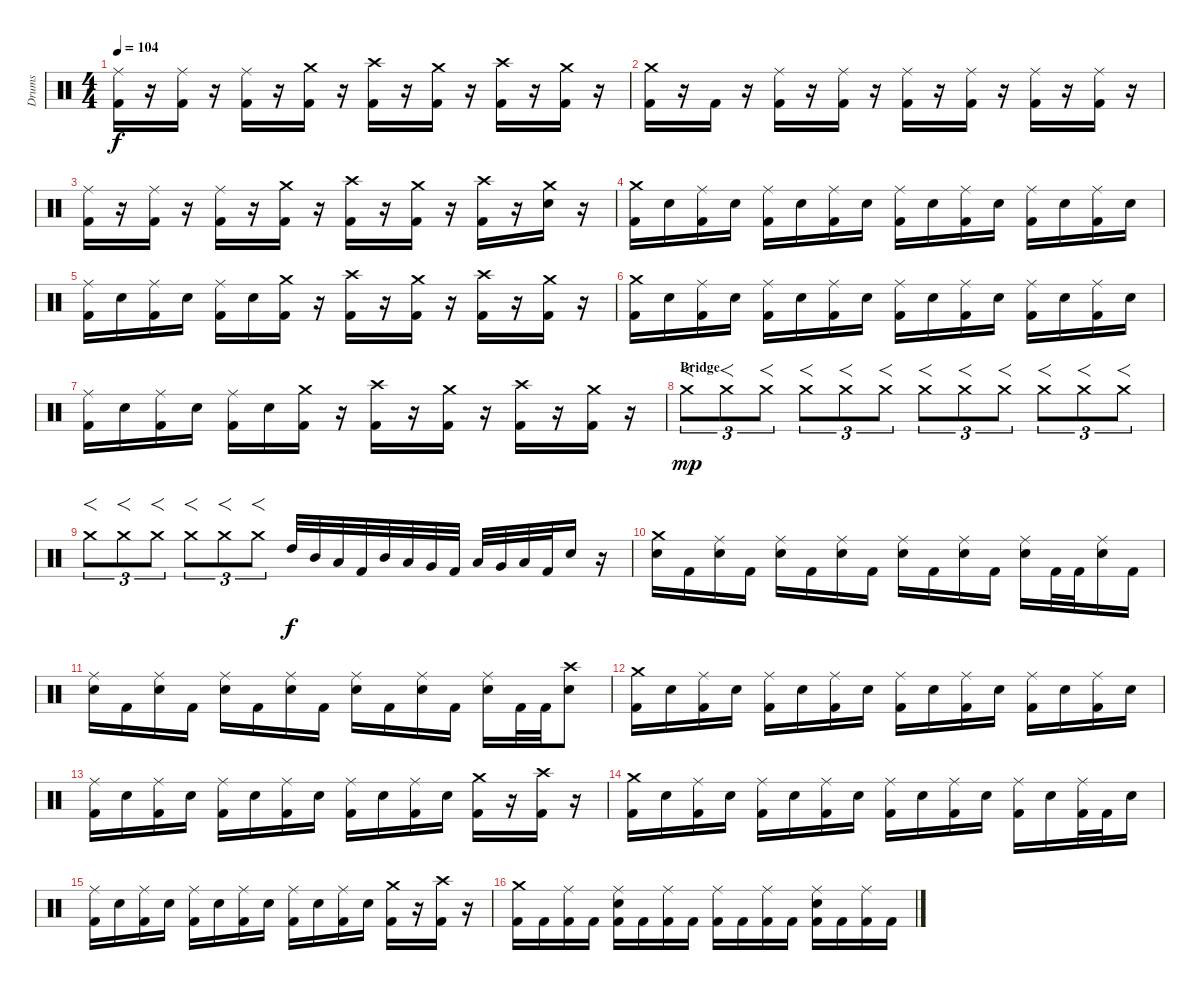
\track ("Drums" "Drums") {instrument percussion}
\staff {score}
\articulation defaults
\ts (4 4)
\tempo 104
\clef neutral
\ks c
("Ride (middle)" "Kick (hit) 2").16{dy f} r.16 ("Ride (middle)" "Kick (hit) 2").16 r.16 ("Ride (middle)" "Kick (hit) 2").16 r.16 ("Crash medium (hit)" "Kick (hit) 2").16 r.16 ("Crash high (hit)" "Kick (hit) 2").16 r.16 ("Crash medium (hit)" "Kick (hit) 2").16 r.16 ("Crash high (hit)" "Kick (hit) 2").16 r.16 ("Crash medium (hit)" "Kick (hit) 2").16 r.16 |
("Crash medium (hit)" "Kick (hit) 2").16 r.16 "Kick (hit) 2".16 r.16 ("Ride (middle)" "Kick (hit) 2").16 r.16 ("Ride (middle)" "Kick (hit) 2").16 r.16 ("Ride (middle)" "Kick (hit) 2").16 r.16 ("Ride (middle)" "Kick (hit) 2").16 r.16 ("Ride (middle)" "Kick (hit) 2").16 r.16 ("Ride (middle)" "Kick (hit) 2").16 r.16 |
("Ride (middle)" "Kick (hit) 2").16 r.16 ("Ride (middle)" "Kick (hit) 2").16 r.16 ("Ride (middle)" "Kick (hit) 2").16 r.16 ("Crash medium (hit)" "Kick (hit) 2").16 r.16 ("Crash high (hit)" "Kick (hit) 2").16 r.16 ("Crash medium (hit)" "Kick (hit) 2").16 r.16 ("Crash high (hit)" "Kick (hit) 2").16 r.16 ("Crash medium (hit)" "Electric Snare (hit)").16 r.16 |
("Crash medium (hit)" "Kick (hit) 2").16 "Electric Snare (hit)".16 ("Ride (middle)" "Kick (hit) 2").16 "Electric Snare (hit)".16 ("Ride (middle)" "Kick (hit) 2").16 "Electric Snare (hit)".16 ("Ride (middle)" "Kick (hit) 2").16 "Electric Snare (hit)".16 ("Ride (middle)" "Kick (hit) 2").16 "Electric Snare (hit)".16 ("Ride (middle)" "Kick (hit) 2").16 "Electric Snare (hit)".16 ("Ride (middle)" "Kick (hit) 2").16 "Electric Snare (hit)".16 ("Ride (middle)" "Kick (hit) 2").16 "Electric Snare (hit)".16 |
("Ride (middle)" "Kick (hit) 2").16 "Electric Snare (hit)".16 ("Ride (middle)" "Kick (hit) 2").16 "Electric Snare (hit)".16 ("Ride (middle)" "Kick (hit) 2").16 "Electric Snare (hit)".16 ("Crash medium (hit)" "Kick (hit) 2").16 r.16 ("Crash high (hit)" "Kick (hit) 2").16 r.16 ("Crash medium (hit)" "Kick (hit) 2").16 r.16 ("Crash high (hit)" "Kick (hit) 2").16 r.16 ("Crash medium (hit)" "Kick (hit) 2").16 r.16 |
("Crash medium (hit)" "Kick (hit) 2").16 "Electric Snare (hit)".16 ("Ride (middle)" "Kick (hit) 2").16 "Electric Snare (hit)".16 ("Ride (middle)" "Kick (hit) 2").16 "Electric Snare (hit)".16 ("Ride (middle)" "Kick (hit) 2").16 "Electric Snare (hit)".16 ("Ride (middle)" "Kick (hit) 2").16 "Electric Snare (hit)".16 ("Ride (middle)" "Kick (hit) 2").16 "Electric Snare (hit)".16 ("Ride (middle)" "Kick (hit) 2").16 "Electric Snare (hit)".16 ("Ride (middle)" "Kick (hit) 2").16 "Electric Snare (hit)".16 |
("Ride (middle)" "Kick (hit) 2").16 "Electric Snare (hit)".16 ("Ride (middle)" "Kick (hit) 2").16 "Electric Snare (hit)".16 ("Ride (middle)" "Kick (hit) 2").16 "Electric Snare (hit)".16 ("Crash medium (hit)" "Kick (hit) 2").16 r.16 ("Crash high (hit)" "Kick (hit) 2").16 r.16 ("Crash medium (hit)" "Kick (hit) 2").16 r.16 ("Crash high (hit)" "Kick (hit) 2").16 r.16 ("Crash medium (hit)" "Kick (hit) 2").16 r.16 |
\section ("" "Bridge")
"Crash medium (hit)".8{f tu (3 2) dy mp} "Crash medium (hit)".8{f tu (3 2)} "Crash medium (hit)".8{f tu (3 2)} "Crash medium (hit)".8{f tu (3 2)} "Crash medium (hit)".8{f tu (3 2)} "Crash medium (hit)".8{f tu (3 2)} "Crash medium (hit)".8{f tu (3 2)} "Crash medium (hit)".8{f tu (3 2)} "Crash medium (hit)".8{f tu (3 2)} "Crash medium (hit)".8{f tu (3 2)} "Crash medium (hit)".8{f tu (3 2)} "Crash medium (hit)".8{f tu (3 2)} |
"Crash medium (hit)".8{f tu (3 2)} "Crash medium (hit)".8{f tu (3 2)} "Crash medium (hit)".8{f tu (3 2)} "Crash medium (hit)".8{f tu (3 2)} "Crash medium (hit)".8{f tu (3 2)} "Crash medium (hit)".8{f tu (3 2)} "High Tom (hit)".32{dy f} "Mid Tom (hit)".32 "Low Tom (hit)".32 "Kick (hit) 2".32 "Mid Tom (hit)".32 "Low Tom (hit)".32 "Very Low Tom (hit)".32 "Kick (hit) 2".32 "Low Tom (hit)".32 "Very Low Tom (hit)".32 "Low Floor Tom (hit)".32 "Kick (hit) 2".32 "Electric Snare (hit)".16 r.16 |
("Crash medium (hit)" "Electric Snare (hit)").16 "Kick (hit) 2".16 ("Ride (middle)" "Electric Snare (hit)").16 "Kick (hit) 2".16 ("Ride (middle)" "Electric Snare (hit)").16 "Kick (hit) 2".16 ("Ride (middle)" "Electric Snare (hit)").16 "Kick (hit) 2".16 ("Ride (middle)" "Electric Snare (hit)").16 "Kick (hit) 2".16 ("Ride (middle)" "Electric Snare (hit)").16 "Kick (hit) 2".16 ("Ride (middle)" "Electric Snare (hit)").16 "Kick (hit) 2".32 "Kick (hit) 2".32 ("Ride (middle)" "Electric Snare (hit)").16 "Kick (hit) 2".16 |
("Ride (middle)" "Electric Snare (hit)").16 "Kick (hit) 2".16 ("Ride (middle)" "Electric Snare (hit)").16 "Kick (hit) 2".16 ("Ride (middle)" "Electric Snare (hit)").16 "Kick (hit) 2".16 ("Ride (middle)" "Electric Snare (hit)").16 "Kick (hit) 2".16 ("Ride (middle)" "Electric Snare (hit)").16 "Kick (hit) 2".16 ("Ride (middle)" "Electric Snare (hit)").16 "Kick (hit) 2".16 ("Ride (middle)" "Electric Snare (hit)").16 "Kick (hit) 2".32 "Kick (hit) 2".32 ("Crash high (hit)" "Electric Snare (hit)").8 |
("Crash medium (hit)" "Kick (hit) 2").16 "Electric Snare (hit)".16 ("Ride (middle)" "Kick (hit) 2").16 "Electric Snare (hit)".16 ("Ride (middle)" "Kick (hit) 2").16 "Electric Snare (hit)".16 ("Ride (middle)" "Kick (hit) 2").16 "Electric Snare (hit)".16 ("Ride (middle)" "Kick (hit) 2").16 "Electric Snare (hit)".16 ("Ride (middle)" "Kick (hit) 2").16 "Electric Snare (hit)".16 ("Ride (middle)" "Kick (hit) 2").16 "Electric Snare (hit)".16 ("Ride (middle)" "Kick (hit) 2").16 "Electric Snare (hit)".16 |
("Ride (middle)" "Kick (hit) 2").16 "Electric Snare (hit)".16 ("Ride (middle)" "Kick (hit) 2").16 "Electric Snare (hit)".16 ("Ride (middle)" "Kick (hit) 2").16 "Electric Snare (hit)".16 ("Ride (middle)" "Kick (hit) 2").16 "Electric Snare (hit)".16 ("Ride (middle)" "Kick (hit) 2").16 "Electric Snare (hit)".16 ("Ride (middle)" "Kick (hit) 2").16 "Electric Snare (hit)".16 ("Crash medium (hit)" "Kick (hit) 2").16 r.16 ("Crash high (hit)" "Kick (hit) 2").16 r.16 |
("Crash medium (hit)" "Kick (hit) 2").16 "Electric Snare (hit)".16 ("Ride (middle)" "Kick (hit) 2").16 "Electric Snare (hit)".16 ("Ride (middle)" "Kick (hit) 2").16 "Electric Snare (hit)".16 ("Ride (middle)" "Kick (hit) 2").16 "Electric Snare (hit)".16 ("Ride (middle)" "Kick (hit) 2").16 "Electric Snare (hit)".16 ("Ride (middle)" "Kick (hit) 2").16 "Electric Snare (hit)".16 ("Ride (middle)" "Kick (hit) 2").16 "Electric Snare (hit)".16 ("Ride (middle)" "Kick (hit) 2").32 "Kick (hit) 2".32 "Electric Snare (hit)".16 |
("Ride (middle)" "Kick (hit) 2").16 "Electric Snare (hit)".16 ("Ride (middle)" "Kick (hit) 2").16 "Electric Snare (hit)".16 ("Ride (middle)" "Kick (hit) 2").16 "Electric Snare (hit)".16 ("Ride (middle)" "Kick (hit) 2").16 "Electric Snare (hit)".16 ("Ride (middle)" "Kick (hit) 2").16 "Electric Snare (hit)".16 ("Ride (middle)" "Kick (hit) 2").16 "Electric Snare (hit)".16 ("Crash medium (hit)" "Kick (hit) 2").16 r.16 ("Crash high (hit)" "Kick (hit) 2").16 r.16 |
\section ("" "")
("Crash medium (hit)" "Kick (hit) 2").16 "Kick (hit) 2".16 ("Ride (middle)" "Kick (hit) 2").16 "Kick (hit) 2".16 ("Ride (middle)" "Electric Snare (hit)" "Kick (hit) 2").16 "Kick (hit) 2".16 ("Ride (middle)" "Kick (hit) 2").16 "Kick (hit) 2".16 ("Ride (middle)" "Kick (hit) 2").16 "Kick (hit) 2".16 ("Ride (middle)" "Kick (hit) 2").16 "Kick (hit) 2".16 ("Ride (middle)" "Electric Snare (hit)" "Kick (hit) 2").16 "Kick (hit) 2".16 ("Ride (middle)" "Kick (hit) 2").16 "Kick (hit) 2".16
